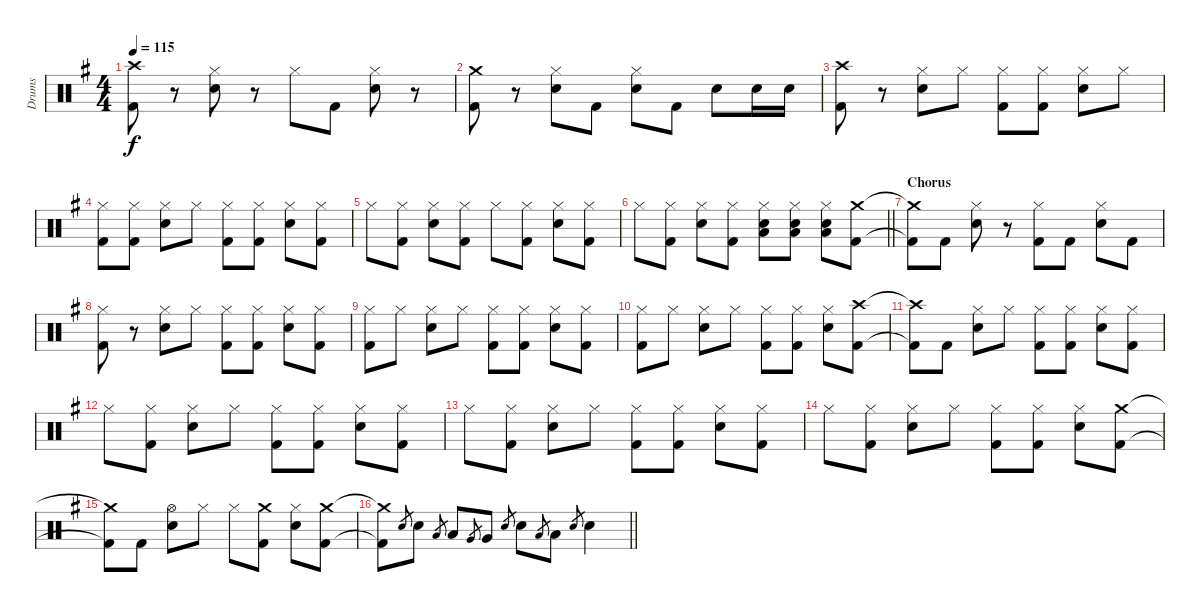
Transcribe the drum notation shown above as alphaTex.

\track ("Drums" "Drums") {instrument percussion}
\staff {score}
\articulation defaults
\ts (4 4)
\tempo 115
\clef neutral
\ks g
("Crash high (hit)" "Kick (hit) 2").8{dy f} r.8 ("Hi-Hat (closed)" "Electric Snare (hit)").8 r.8 "Hi-Hat (closed)".8 "Kick (hit) 2".8 ("Hi-Hat (closed)" "Electric Snare (hit)").8 r.8 |
("Crash medium (hit)" "Kick (hit) 2").8 r.8 ("Hi-Hat (closed)" "Electric Snare (hit)").8 "Kick (hit) 2".8 ("Hi-Hat (closed)" "Electric Snare (hit)").8 "Kick (hit) 2".8 "Electric Snare (hit)".8 "Electric Snare (hit)".16 "Electric Snare (hit)".16 |
("Crash high (hit)" "Kick (hit) 2").8 r.8 ("Hi-Hat (closed)" "Electric Snare (hit)").8 "Hi-Hat (closed)".8 ("Hi-Hat (closed)" "Kick (hit) 2").8 ("Hi-Hat (closed)" "Kick (hit) 2").8 ("Hi-Hat (closed)" "Electric Snare (hit)").8 "Hi-Hat (closed)".8 |
("Hi-Hat (closed)" "Kick (hit) 2").8 ("Hi-Hat (closed)" "Kick (hit) 2").8 ("Hi-Hat (closed)" "Electric Snare (hit)").8 "Hi-Hat (closed)".8 ("Hi-Hat (closed)" "Kick (hit) 2").8 ("Hi-Hat (closed)" "Kick (hit) 2").8 ("Hi-Hat (closed)" "Electric Snare (hit)").8 ("Hi-Hat (closed)" "Kick (hit) 2").8 |
"Hi-Hat (closed)".8 ("Hi-Hat (closed)" "Kick (hit) 2").8 ("Hi-Hat (closed)" "Electric Snare (hit)").8 ("Hi-Hat (closed)" "Kick (hit) 2").8 "Hi-Hat (closed)".8 ("Hi-Hat (closed)" "Kick (hit) 2").8 ("Hi-Hat (closed)" "Electric Snare (hit)").8 ("Hi-Hat (closed)" "Kick (hit) 2").8 |
\barLineRight lightlight "Hi-Hat (closed)".8
("Hi-Hat (closed)" "Kick (hit) 2").8 ("Hi-Hat (closed)" "Electric Snare (hit)").8 ("Hi-Hat (closed)" "Kick (hit) 2").8 ("Hi-Hat (closed)" "Electric Snare (hit)" "Low Tom (hit)").8 ("Hi-Hat (closed)" "Electric Snare (hit)" "Low Tom (hit)").8 ("Hi-Hat (closed)" "Electric Snare (hit)" "Low Tom (hit)").8 ("Crash medium (hit)" "Kick (hit) 2").8 |
\section ("" "Chorus")
("Crash medium (hit)"{t} "Kick (hit) 2"{t}).8 "Kick (hit) 2".8 ("Hi-Hat (closed)" "Electric Snare (hit)").8 r.8 ("Hi-Hat (closed)" "Kick (hit) 2").8 "Kick (hit) 2".8 ("Hi-Hat (closed)" "Electric Snare (hit)").8 "Kick (hit) 2".8 |
("Hi-Hat (closed)" "Kick (hit) 2").8 r.8 ("Hi-Hat (closed)" "Electric Snare (hit)").8 "Hi-Hat (closed)".8 ("Hi-Hat (closed)" "Kick (hit) 2").8 ("Hi-Hat (closed)" "Kick (hit) 2").8 ("Hi-Hat (closed)" "Electric Snare (hit)").8 ("Hi-Hat (closed)" "Kick (hit) 2").8 |
("Hi-Hat (closed)" "Kick (hit) 2").8 "Hi-Hat (closed)".8 ("Hi-Hat (closed)" "Electric Snare (hit)").8 "Hi-Hat (closed)".8 ("Hi-Hat (closed)" "Kick (hit) 2").8 ("Hi-Hat (closed)" "Kick (hit) 2").8 ("Hi-Hat (closed)" "Electric Snare (hit)").8 ("Hi-Hat (closed)" "Kick (hit) 2").8 |
("Hi-Hat (closed)" "Kick (hit) 2").8 "Hi-Hat (closed)".8 ("Hi-Hat (closed)" "Electric Snare (hit)").8 "Hi-Hat (closed)".8 ("Hi-Hat (closed)" "Kick (hit) 2").8 ("Hi-Hat (closed)" "Kick (hit) 2").8 ("Hi-Hat (closed)" "Electric Snare (hit)").8 ("Crash high (hit)" "Kick (hit) 2").8 |
("Crash high (hit)"{t} "Kick (hit) 2"{t}).8 "Kick (hit) 2".8 ("Hi-Hat (closed)" "Electric Snare (hit)").8 "Hi-Hat (closed)".8 ("Hi-Hat (closed)" "Kick (hit) 2").8 ("Hi-Hat (closed)" "Kick (hit) 2").8 ("Hi-Hat (closed)" "Electric Snare (hit)").8 ("Hi-Hat (closed)" "Kick (hit) 2").8 |
"Hi-Hat (closed)".8 ("Hi-Hat (closed)" "Kick (hit) 2").8 ("Hi-Hat (closed)" "Electric Snare (hit)").8 "Hi-Hat (closed)".8 ("Hi-Hat (closed)" "Kick (hit) 2").8 ("Hi-Hat (closed)" "Kick (hit) 2").8 ("Hi-Hat (closed)" "Electric Snare (hit)").8 ("Hi-Hat (closed)" "Kick (hit) 2").8 |
"Hi-Hat (closed)".8 ("Hi-Hat (closed)" "Kick (hit) 2").8 ("Hi-Hat (closed)" "Electric Snare (hit)").8 "Hi-Hat (closed)".8 ("Hi-Hat (closed)" "Kick (hit) 2").8 ("Hi-Hat (closed)" "Kick (hit) 2").8 ("Hi-Hat (closed)" "Electric Snare (hit)").8 ("Hi-Hat (closed)" "Kick (hit) 2").8 |
"Hi-Hat (closed)".8 ("Hi-Hat (closed)" "Kick (hit) 2").8 ("Hi-Hat (closed)" "Electric Snare (hit)").8 "Hi-Hat (closed)".8 ("Hi-Hat (closed)" "Kick (hit) 2").8 ("Hi-Hat (closed)" "Kick (hit) 2").8 ("Hi-Hat (closed)" "Electric Snare (hit)").8 ("Crash medium (hit)" "Kick (hit) 2").8 |
("Crash medium (hit)"{t} "Kick (hit) 2"{t}).8 "Kick (hit) 2".8 ("Hi-Hat (open)" "Electric Snare (hit)").8 "Hi-Hat (closed)".8 "Hi-Hat (closed)".8 ("Crash medium (hit)" "Kick (hit) 2").8 ("Hi-Hat (closed)" "Electric Snare (hit)").8 ("Crash medium (hit)" "Kick (hit) 2").8 |
\barLineRight lightlight
("Crash medium (hit)"{t} "Kick (hit) 2"{t}).8 "Electric Snare (hit)".8{gr} "Electric Snare (hit)".8 "Low Tom (hit)".8{gr} "Low Tom (hit)".8 "Very Low Tom (hit)".8{gr} "Very Low Tom (hit)".8 "Electric Snare (hit)".8{gr} "Electric Snare (hit)".8 "Low Tom (hit)".8{gr} "Low Tom (hit)".8 "Electric Snare (hit)".8{gr} "Electric Snare (hit)".4
